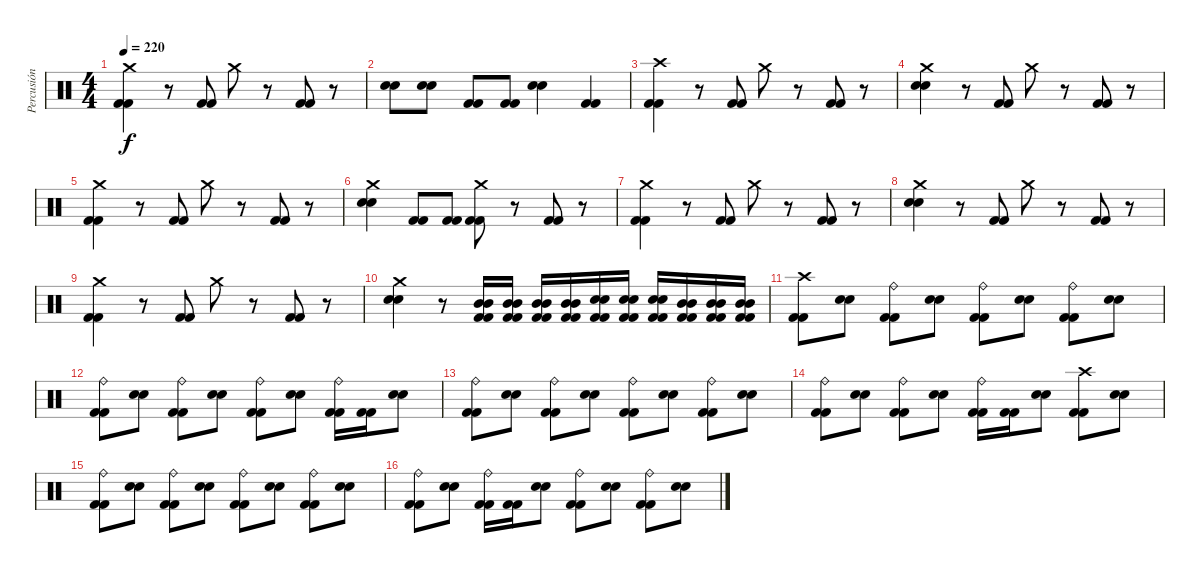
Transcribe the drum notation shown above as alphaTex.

\track ("Percusión" "Percusión") {instrument percussion}
\staff {score}
\articulation defaults
\ts (4 4)
\tempo 220
\clef neutral
\ks c
("Kick (hit) 2" "Kick (hit) 2" "Crash medium (hit)").4{dy f} r.8 ("Kick (hit) 2" "Kick (hit) 2").8 "Crash medium (hit)".8 r.8 ("Kick (hit) 2" "Kick (hit) 2").8 r.8 |
("Electric Snare (hit)" "Electric Snare (hit)").8 ("Electric Snare (hit)" "Electric Snare (hit)").8 ("Kick (hit) 2" "Kick (hit) 2").8 ("Kick (hit) 2" "Kick (hit) 2").8 ("Electric Snare (hit)" "Electric Snare (hit)").4 ("Kick (hit) 2" "Kick (hit) 2").4 |
("Kick (hit) 2" "Kick (hit) 2" "Crash high (hit)").4 r.8 ("Kick (hit) 2" "Kick (hit) 2").8 "Crash medium (hit)".8 r.8 ("Kick (hit) 2" "Kick (hit) 2").8 r.8 |
("Electric Snare (hit)" "Electric Snare (hit)" "Crash medium (hit)").4 r.8 ("Kick (hit) 2" "Kick (hit) 2").8 "Crash medium (hit)".8 r.8 ("Kick (hit) 2" "Kick (hit) 2").8 r.8 |
("Kick (hit) 2" "Kick (hit) 2" "Crash medium (hit)").4 r.8 ("Kick (hit) 2" "Kick (hit) 2").8 "Crash medium (hit)".8 r.8 ("Kick (hit) 2" "Kick (hit) 2").8 r.8 |
("Electric Snare (hit)" "Electric Snare (hit)" "Crash medium (hit)").4 ("Kick (hit) 2" "Kick (hit) 2").8 ("Kick (hit) 2" "Kick (hit) 2").8 ("Kick (hit) 2" "Kick (hit) 2" "Crash medium (hit)").8 r.8 ("Kick (hit) 2" "Kick (hit) 2").8 r.8 |
("Kick (hit) 2" "Kick (hit) 2" "Crash medium (hit)").4 r.8 ("Kick (hit) 2" "Kick (hit) 2").8 "Crash medium (hit)".8 r.8 ("Kick (hit) 2" "Kick (hit) 2").8 r.8 |
("Electric Snare (hit)" "Electric Snare (hit)" "Crash medium (hit)").4 r.8 ("Kick (hit) 2" "Kick (hit) 2").8 "Crash medium (hit)".8 r.8 ("Kick (hit) 2" "Kick (hit) 2").8 r.8 |
("Kick (hit) 2" "Kick (hit) 2" "Crash medium (hit)").4 r.8 ("Kick (hit) 2" "Kick (hit) 2").8 "Crash medium (hit)".8 r.8 ("Kick (hit) 2" "Kick (hit) 2").8 r.8 |
("Electric Snare (hit)" "Electric Snare (hit)" "Crash medium (hit)").4 r.8 ("Kick (hit) 2" "Kick (hit) 2" "Mid Tom (hit)" "Mid Tom (hit)").16 ("Kick (hit) 2" "Kick (hit) 2" "Mid Tom (hit)" "Mid Tom (hit)").16 ("Kick (hit) 2" "Kick (hit) 2" "Mid Tom (hit)" "Mid Tom (hit)").16 ("Kick (hit) 2" "Kick (hit) 2" "Mid Tom (hit)" "Mid Tom (hit)").16 ("Kick (hit) 2" "Kick (hit) 2" "Electric Snare (hit)" "Electric Snare (hit)").16 ("Kick (hit) 2" "Kick (hit) 2" "Electric Snare (hit)" "Electric Snare (hit)").16 ("Kick (hit) 2" "Kick (hit) 2" "Electric Snare (hit)" "Electric Snare (hit)").16 ("Kick (hit) 2" "Kick (hit) 2" "Mid Tom (hit)" "Mid Tom (hit)").16 ("Kick (hit) 2" "Kick (hit) 2" "Mid Tom (hit)" "Mid Tom (hit)").16 ("Kick (hit) 2" "Kick (hit) 2" "Mid Tom (hit)" "Mid Tom (hit)").16 |
("Kick (hit) 2" "Kick (hit) 2" "Crash high (hit)").8 ("Electric Snare (hit)" "Electric Snare (hit)").8 ("Kick (hit) 2" "Kick (hit) 2" "Ride (bell)").8 ("Electric Snare (hit)" "Electric Snare (hit)").8 ("Kick (hit) 2" "Kick (hit) 2" "Ride (bell)").8 ("Electric Snare (hit)" "Electric Snare (hit)").8 ("Kick (hit) 2" "Kick (hit) 2" "Ride (bell)").8 ("Electric Snare (hit)" "Electric Snare (hit)").8 |
("Kick (hit) 2" "Kick (hit) 2" "Ride (bell)").8 ("Electric Snare (hit)" "Electric Snare (hit)").8 ("Kick (hit) 2" "Kick (hit) 2" "Ride (bell)").8 ("Electric Snare (hit)" "Electric Snare (hit)").8 ("Kick (hit) 2" "Kick (hit) 2" "Ride (bell)").8 ("Electric Snare (hit)" "Electric Snare (hit)").8 ("Kick (hit) 2" "Kick (hit) 2" "Ride (bell)").16 ("Kick (hit) 2" "Kick (hit) 2").16 ("Electric Snare (hit)" "Electric Snare (hit)").8 |
("Kick (hit) 2" "Kick (hit) 2" "Ride (bell)").8 ("Electric Snare (hit)" "Electric Snare (hit)").8 ("Kick (hit) 2" "Kick (hit) 2" "Ride (bell)").8 ("Electric Snare (hit)" "Electric Snare (hit)").8 ("Kick (hit) 2" "Kick (hit) 2" "Ride (bell)").8 ("Electric Snare (hit)" "Electric Snare (hit)").8 ("Kick (hit) 2" "Kick (hit) 2" "Ride (bell)").8 ("Electric Snare (hit)" "Electric Snare (hit)").8 |
("Kick (hit) 2" "Kick (hit) 2" "Ride (bell)").8 ("Electric Snare (hit)" "Electric Snare (hit)").8 ("Kick (hit) 2" "Kick (hit) 2" "Ride (bell)").8 ("Electric Snare (hit)" "Electric Snare (hit)").8 ("Kick (hit) 2" "Kick (hit) 2" "Ride (bell)").16 ("Kick (hit) 2" "Kick (hit) 2").16 ("Electric Snare (hit)" "Electric Snare (hit)").8 ("Kick (hit) 2" "Kick (hit) 2" "Crash high (hit)").8 ("Electric Snare (hit)" "Electric Snare (hit)").8 |
("Kick (hit) 2" "Kick (hit) 2" "Ride (bell)").8 ("Electric Snare (hit)" "Electric Snare (hit)").8 ("Kick (hit) 2" "Kick (hit) 2" "Ride (bell)").8 ("Electric Snare (hit)" "Electric Snare (hit)").8 ("Kick (hit) 2" "Kick (hit) 2" "Ride (bell)").8 ("Electric Snare (hit)" "Electric Snare (hit)").8 ("Kick (hit) 2" "Kick (hit) 2" "Ride (bell)").8 ("Electric Snare (hit)" "Electric Snare (hit)").8 |
("Kick (hit) 2" "Kick (hit) 2" "Ride (bell)").8 ("Electric Snare (hit)" "Electric Snare (hit)").8 ("Kick (hit) 2" "Kick (hit) 2" "Ride (bell)").16 ("Kick (hit) 2" "Kick (hit) 2").16 ("Electric Snare (hit)" "Electric Snare (hit)").8 ("Kick (hit) 2" "Kick (hit) 2" "Ride (bell)").8 ("Electric Snare (hit)" "Electric Snare (hit)").8 ("Kick (hit) 2" "Kick (hit) 2" "Ride (bell)").8 ("Electric Snare (hit)" "Electric Snare (hit)").8
